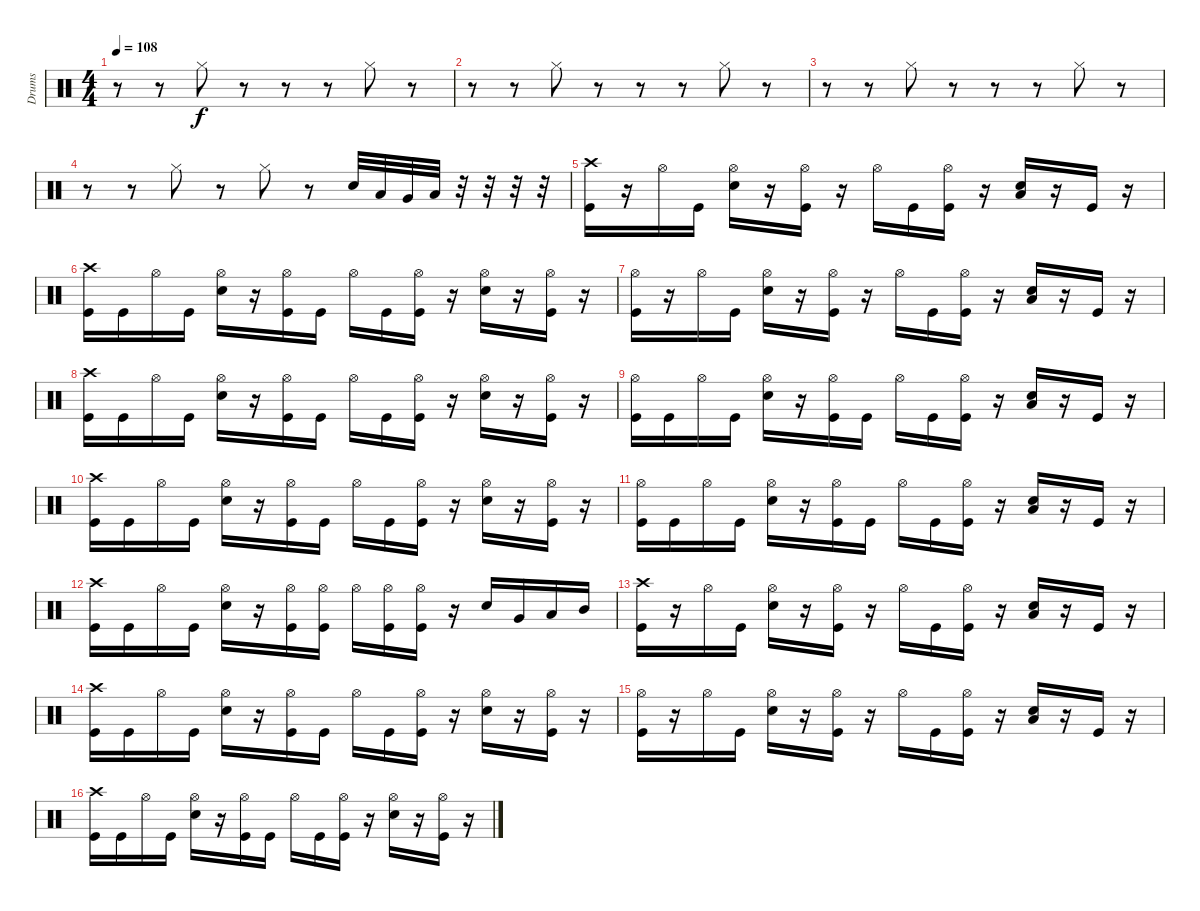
\track ("Drums" "Drums") {instrument percussion}
\staff {score}
\articulation defaults
\ts (4 4)
\tempo 108
\clef neutral
\ks c
r.8{dy f} r.8 "Hi-Hat (closed)".8 r.8 r.8 r.8 "Hi-Hat (closed)".8 r.8 |
r.8 r.8 "Hi-Hat (closed)".8 r.8 r.8 r.8 "Hi-Hat (closed)".8 r.8 |
r.8 r.8 "Hi-Hat (closed)".8 r.8 r.8 r.8 "Hi-Hat (closed)".8 r.8 |
r.8 r.8 "Hi-Hat (closed)".8 r.8 "Hi-Hat (closed)".8 r.8 "Electric Snare (hit)".32 "Low Tom (hit)".32 "Very Low Tom (hit)".32 "Low Floor Tom (hit)".32 r.32 r.32 r.32 r.32 |
("Crash high (hit)" "Kick (hit)").16 r.16 "Hi-Hat (open)".16 "Kick (hit)".16 ("Hi-Hat (open)" "Electric Snare (hit)").16 r.16 ("Hi-Hat (open)" "Kick (hit)").16 r.16 "Hi-Hat (open)".16 "Kick (hit)".16 ("Hi-Hat (open)" "Kick (hit)").16 r.16 ("Low Floor Tom (hit)" "Electric Snare (hit)").16 r.16 "Kick (hit)".16 r.16 |
("Crash high (hit)" "Kick (hit)").16 "Kick (hit)".16 "Hi-Hat (open)".16 "Kick (hit)".16 ("Hi-Hat (open)" "Electric Snare (hit)").16 r.16 ("Hi-Hat (open)" "Kick (hit)").16 "Kick (hit)".16 "Hi-Hat (open)".16 "Kick (hit)".16 ("Hi-Hat (open)" "Kick (hit)").16 r.16 ("Hi-Hat (open)" "Electric Snare (hit)").16 r.16 ("Hi-Hat (open)" "Kick (hit)").16 r.16 |
("Hi-Hat (open)" "Kick (hit)").16 r.16 "Hi-Hat (open)".16 "Kick (hit)".16 ("Hi-Hat (open)" "Electric Snare (hit)").16 r.16 ("Hi-Hat (open)" "Kick (hit)").16 r.16 "Hi-Hat (open)".16 "Kick (hit)".16 ("Hi-Hat (open)" "Kick (hit)").16 r.16 ("Low Floor Tom (hit)" "Electric Snare (hit)").16 r.16 "Kick (hit)".16 r.16 |
("Crash high (hit)" "Kick (hit)").16 "Kick (hit)".16 "Hi-Hat (open)".16 "Kick (hit)".16 ("Hi-Hat (open)" "Electric Snare (hit)").16 r.16 ("Hi-Hat (open)" "Kick (hit)").16 "Kick (hit)".16 "Hi-Hat (open)".16 "Kick (hit)".16 ("Hi-Hat (open)" "Kick (hit)").16 r.16 ("Hi-Hat (open)" "Electric Snare (hit)").16 r.16 ("Hi-Hat (open)" "Kick (hit)").16 r.16 |
("Hi-Hat (open)" "Kick (hit)").16 "Kick (hit)".16 "Hi-Hat (open)".16 "Kick (hit)".16 ("Hi-Hat (open)" "Electric Snare (hit)").16 r.16 ("Hi-Hat (open)" "Kick (hit)").16 "Kick (hit)".16 "Hi-Hat (open)".16 "Kick (hit)".16 ("Hi-Hat (open)" "Kick (hit)").16 r.16 ("Low Floor Tom (hit)" "Electric Snare (hit)").16 r.16 "Kick (hit)".16 r.16 |
("Crash high (hit)" "Kick (hit)").16 "Kick (hit)".16 "Hi-Hat (open)".16 "Kick (hit)".16 ("Hi-Hat (open)" "Electric Snare (hit)").16 r.16 ("Hi-Hat (open)" "Kick (hit)").16 "Kick (hit)".16 "Hi-Hat (open)".16 "Kick (hit)".16 ("Hi-Hat (open)" "Kick (hit)").16 r.16 ("Hi-Hat (open)" "Electric Snare (hit)").16 r.16 ("Hi-Hat (open)" "Kick (hit)").16 r.16 |
("Hi-Hat (open)" "Kick (hit)").16 "Kick (hit)".16 "Hi-Hat (open)".16 "Kick (hit)".16 ("Hi-Hat (open)" "Electric Snare (hit)").16 r.16 ("Hi-Hat (open)" "Kick (hit)").16 "Kick (hit)".16 "Hi-Hat (open)".16 "Kick (hit)".16 ("Hi-Hat (open)" "Kick (hit)").16 r.16 ("Low Floor Tom (hit)" "Electric Snare (hit)").16 r.16 "Kick (hit)".16 r.16 |
("Crash high (hit)" "Kick (hit)").16 "Kick (hit)".16 "Hi-Hat (open)".16 "Kick (hit)".16 ("Hi-Hat (open)" "Electric Snare (hit)").16 r.16 ("Hi-Hat (open)" "Kick (hit)").16 ("Hi-Hat (open)" "Kick (hit)").16 "Hi-Hat (open)".16 ("Hi-Hat (open)" "Kick (hit)").16 ("Hi-Hat (open)" "Kick (hit)").16 r.16 "Electric Snare (hit)".16 "Very Low Tom (hit)".16 "Low Tom (hit)".16 "Mid Tom (hit)".16 |
("Crash high (hit)" "Kick (hit)").16 r.16 "Hi-Hat (open)".16 "Kick (hit)".16 ("Hi-Hat (open)" "Electric Snare (hit)").16 r.16 ("Hi-Hat (open)" "Kick (hit)").16 r.16 "Hi-Hat (open)".16 "Kick (hit)".16 ("Hi-Hat (open)" "Kick (hit)").16 r.16 ("Low Floor Tom (hit)" "Electric Snare (hit)").16 r.16 "Kick (hit)".16 r.16 |
("Crash high (hit)" "Kick (hit)").16 "Kick (hit)".16 "Hi-Hat (open)".16 "Kick (hit)".16 ("Hi-Hat (open)" "Electric Snare (hit)").16 r.16 ("Hi-Hat (open)" "Kick (hit)").16 "Kick (hit)".16 "Hi-Hat (open)".16 "Kick (hit)".16 ("Hi-Hat (open)" "Kick (hit)").16 r.16 ("Hi-Hat (open)" "Electric Snare (hit)").16 r.16 ("Hi-Hat (open)" "Kick (hit)").16 r.16 |
("Hi-Hat (open)" "Kick (hit)").16 r.16 "Hi-Hat (open)".16 "Kick (hit)".16 ("Hi-Hat (open)" "Electric Snare (hit)").16 r.16 ("Hi-Hat (open)" "Kick (hit)").16 r.16 "Hi-Hat (open)".16 "Kick (hit)".16 ("Hi-Hat (open)" "Kick (hit)").16 r.16 ("Low Floor Tom (hit)" "Electric Snare (hit)").16 r.16 "Kick (hit)".16 r.16 |
("Crash high (hit)" "Kick (hit)").16 "Kick (hit)".16 "Hi-Hat (open)".16 "Kick (hit)".16 ("Hi-Hat (open)" "Electric Snare (hit)").16 r.16 ("Hi-Hat (open)" "Kick (hit)").16 "Kick (hit)".16 "Hi-Hat (open)".16 "Kick (hit)".16 ("Hi-Hat (open)" "Kick (hit)").16 r.16 ("Hi-Hat (open)" "Electric Snare (hit)").16 r.16 ("Hi-Hat (open)" "Kick (hit)").16 r.16
